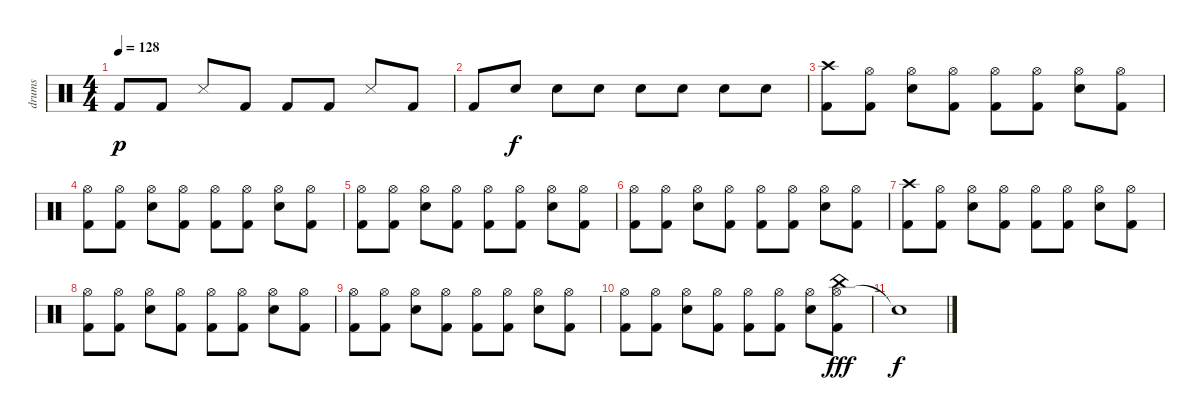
\track ("drums" "drums") {instrument percussion}
\staff {score}
\articulation defaults
\ts (4 4)
\tempo 128
\clef neutral
\ks c "Kick (hit) 2".8{dy p} "Kick (hit) 2".8 "Snare (side stick) 3".8 "Kick (hit) 2".8 "Kick (hit) 2".8 "Kick (hit) 2".8 "Snare (side stick) 3".8 "Kick (hit) 2".8
|
"Kick (hit) 2".8 "Electric Snare (hit)".8{dy f} "Electric Snare (hit)".8 "Electric Snare (hit)".8 "Electric Snare (hit)".8 "Electric Snare (hit)".8 "Electric Snare (hit)".8 "Electric Snare (hit)".8 |
("Crash high (hit)" "Kick (hit) 2").8 ("Hi-Hat (open)" "Kick (hit) 2").8 ("Hi-Hat (open)" "Electric Snare (hit)").8 ("Hi-Hat (open)" "Kick (hit) 2").8 ("Hi-Hat (open)" "Kick (hit) 2").8 ("Hi-Hat (open)" "Kick (hit) 2").8 ("Hi-Hat (open)" "Electric Snare (hit)").8 ("Hi-Hat (open)" "Kick (hit) 2").8 |
("Hi-Hat (open)" "Kick (hit) 2").8 ("Hi-Hat (open)" "Kick (hit) 2").8 ("Hi-Hat (open)" "Electric Snare (hit)").8 ("Hi-Hat (open)" "Kick (hit) 2").8 ("Hi-Hat (open)" "Kick (hit) 2").8 ("Hi-Hat (open)" "Kick (hit) 2").8 ("Hi-Hat (open)" "Electric Snare (hit)").8 ("Hi-Hat (open)" "Kick (hit) 2").8 |
("Hi-Hat (open)" "Kick (hit) 2").8 ("Hi-Hat (open)" "Kick (hit) 2").8 ("Hi-Hat (open)" "Electric Snare (hit)").8 ("Hi-Hat (open)" "Kick (hit) 2").8 ("Hi-Hat (open)" "Kick (hit) 2").8 ("Hi-Hat (open)" "Kick (hit) 2").8 ("Hi-Hat (open)" "Electric Snare (hit)").8 ("Hi-Hat (open)" "Kick (hit) 2").8 |
("Hi-Hat (open)" "Kick (hit) 2").8 ("Hi-Hat (open)" "Kick (hit) 2").8 ("Hi-Hat (open)" "Electric Snare (hit)").8 ("Hi-Hat (open)" "Kick (hit) 2").8 ("Hi-Hat (open)" "Kick (hit) 2").8 ("Hi-Hat (open)" "Kick (hit) 2").8 ("Hi-Hat (open)" "Electric Snare (hit)").8 ("Hi-Hat (open)" "Kick (hit) 2").8 |
("Crash high (hit)" "Kick (hit) 2").8 ("Hi-Hat (open)" "Kick (hit) 2").8 ("Hi-Hat (open)" "Electric Snare (hit)").8 ("Hi-Hat (open)" "Kick (hit) 2").8 ("Hi-Hat (open)" "Kick (hit) 2").8 ("Hi-Hat (open)" "Kick (hit) 2").8 ("Hi-Hat (open)" "Electric Snare (hit)").8 ("Hi-Hat (open)" "Kick (hit) 2").8 |
("Hi-Hat (open)" "Kick (hit) 2").8 ("Hi-Hat (open)" "Kick (hit) 2").8 ("Hi-Hat (open)" "Electric Snare (hit)").8 ("Hi-Hat (open)" "Kick (hit) 2").8 ("Hi-Hat (open)" "Kick (hit) 2").8 ("Hi-Hat (open)" "Kick (hit) 2").8 ("Hi-Hat (open)" "Electric Snare (hit)").8 ("Hi-Hat (open)" "Kick (hit) 2").8 |
("Hi-Hat (open)" "Kick (hit) 2").8 ("Hi-Hat (open)" "Kick (hit) 2").8 ("Hi-Hat (open)" "Electric Snare (hit)").8 ("Hi-Hat (open)" "Kick (hit) 2").8 ("Hi-Hat (open)" "Kick (hit) 2").8 ("Hi-Hat (open)" "Kick (hit) 2").8 ("Hi-Hat (open)" "Electric Snare (hit)").8 ("Hi-Hat (open)" "Kick (hit) 2").8 |
("Hi-Hat (open)" "Kick (hit) 2").8 ("Hi-Hat (open)" "Kick (hit) 2").8 ("Hi-Hat (open)" "Electric Snare (hit)").8 ("Hi-Hat (open)" "Kick (hit) 2").8 ("Hi-Hat (open)" "Kick (hit) 2").8 ("Hi-Hat (open)" "Kick (hit) 2").8 ("Hi-Hat (open)" "Electric Snare (hit)").8 ("Hi-Hat (open)" "China (hit)" "Kick (hit) 2").8{dy fff} |
"Snare (hit)"{t}.1{dy f}
